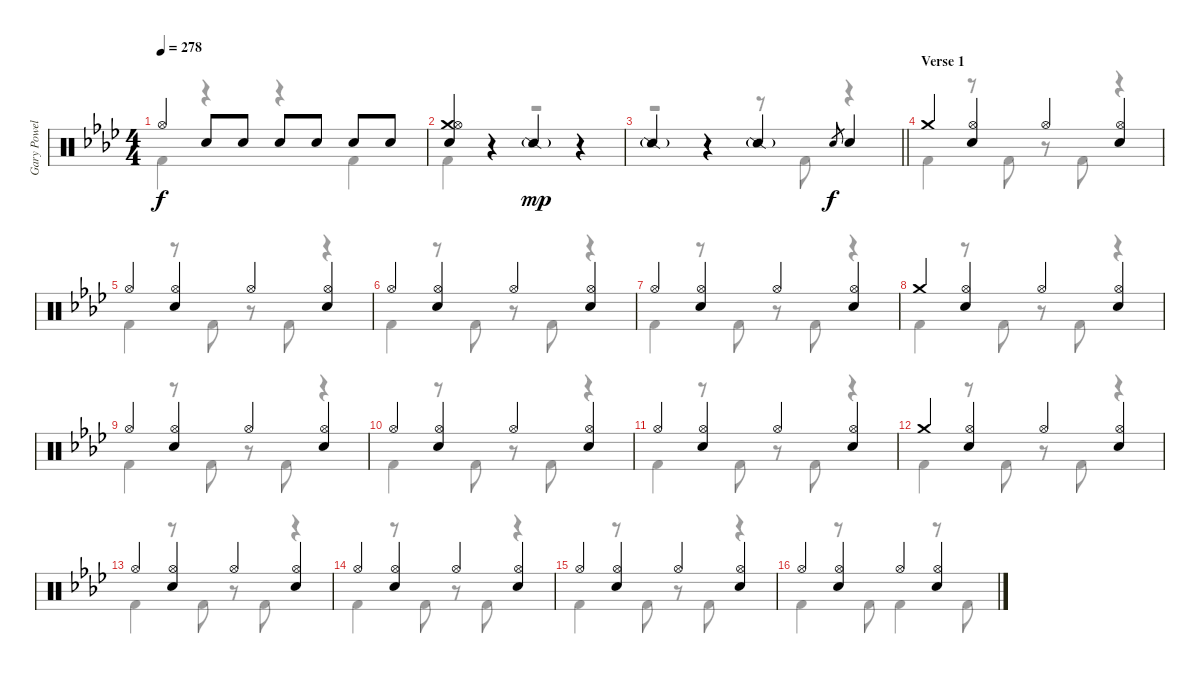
\track ("Gary Powell" "Gary Powel") {instrument percussion}
\staff {score}
\articulation defaults
\voice
\ts (4 4)
\tempo 278
\clef neutral
\ks ab "Hi-Hat (open)".4{dy f} "Electric Snare (hit)".8 "Electric Snare (hit)".8 "Electric Snare (hit)".8 "Electric Snare (hit)".8 "Electric Snare (hit)".8 "Electric Snare (hit)".8
|
("Crash medium (hit)" "Hi-Hat (open)" "Electric Snare (hit)").4 r.4 "Snare (side stick) 2"{g}.4{dy mp} r.4 |
\barLineRight lightlight "Snare (side stick) 2"{g}.4
r.4 "Snare (side stick) 2"{g}.4 "Electric Snare (hit)".8{gr dy f} "Electric Snare (hit)".4 |
\section ("" "Verse 1")
"Crash medium (hit)".4 ("Hi-Hat (open)" "Electric Snare (hit)").4 "Hi-Hat (open)".4 ("Hi-Hat (open)" "Electric Snare (hit)").4 |
"Hi-Hat (open)".4 ("Hi-Hat (open)" "Electric Snare (hit)").4 "Hi-Hat (open)".4 ("Hi-Hat (open)" "Electric Snare (hit)").4 |
"Hi-Hat (open)".4 ("Hi-Hat (open)" "Electric Snare (hit)").4 "Hi-Hat (open)".4 ("Hi-Hat (open)" "Electric Snare (hit)").4 |
"Hi-Hat (open)".4 ("Hi-Hat (open)" "Electric Snare (hit)").4 "Hi-Hat (open)".4 ("Hi-Hat (open)" "Electric Snare (hit)").4 |
"Crash medium (hit)".4 ("Hi-Hat (open)" "Electric Snare (hit)").4 "Hi-Hat (open)".4 ("Hi-Hat (open)" "Electric Snare (hit)").4 |
"Hi-Hat (open)".4 ("Hi-Hat (open)" "Electric Snare (hit)").4 "Hi-Hat (open)".4 ("Hi-Hat (open)" "Electric Snare (hit)").4 |
"Hi-Hat (open)".4 ("Hi-Hat (open)" "Electric Snare (hit)").4 "Hi-Hat (open)".4 ("Hi-Hat (open)" "Electric Snare (hit)").4 |
"Hi-Hat (open)".4 ("Hi-Hat (open)" "Electric Snare (hit)").4 "Hi-Hat (open)".4 ("Hi-Hat (open)" "Electric Snare (hit)").4 |
"Crash medium (hit)".4 ("Hi-Hat (open)" "Electric Snare (hit)").4 "Hi-Hat (open)".4 ("Hi-Hat (open)" "Electric Snare (hit)").4 |
"Hi-Hat (open)".4 ("Hi-Hat (open)" "Electric Snare (hit)").4 "Hi-Hat (open)".4 ("Hi-Hat (open)" "Electric Snare (hit)").4 |
"Hi-Hat (open)".4 ("Hi-Hat (open)" "Electric Snare (hit)").4 "Hi-Hat (open)".4 ("Hi-Hat (open)" "Electric Snare (hit)").4 |
"Hi-Hat (open)".4 ("Hi-Hat (open)" "Electric Snare (hit)").4 "Hi-Hat (open)".4 ("Hi-Hat (open)" "Electric Snare (hit)").4 |
"Hi-Hat (open)".4 ("Hi-Hat (open)" "Electric Snare (hit)").4 "Hi-Hat (open)".4 ("Hi-Hat (open)" "Electric Snare (hit)").4
\voice
\clef neutral
\ottava regular
\simile none
\ks ab "Kick (hit) 2".4{dy f}
r.4 r.4 "Kick (hit) 2".4 |
"Kick (hit) 2".4 r.4 r.2 |
\barLineRight lightlight
r.2 r.8 "Kick (hit) 2".8 r.4 |
"Kick (hit) 2".4 r.8 "Kick (hit) 2".8 r.8 "Kick (hit) 2".8 r.4 |
"Kick (hit) 2".4 r.8 "Kick (hit) 2".8 r.8 "Kick (hit) 2".8 r.4 |
"Kick (hit) 2".4 r.8 "Kick (hit) 2".8 r.8 "Kick (hit) 2".8 r.4 |
"Kick (hit) 2".4 r.8 "Kick (hit) 2".8 r.8 "Kick (hit) 2".8 r.4 |
"Kick (hit) 2".4 r.8 "Kick (hit) 2".8 r.8 "Kick (hit) 2".8 r.4 |
"Kick (hit) 2".4 r.8 "Kick (hit) 2".8 r.8 "Kick (hit) 2".8 r.4 |
"Kick (hit) 2".4 r.8 "Kick (hit) 2".8 r.8 "Kick (hit) 2".8 r.4 |
"Kick (hit) 2".4 r.8 "Kick (hit) 2".8 r.8 "Kick (hit) 2".8 r.4 |
"Kick (hit) 2".4 r.8 "Kick (hit) 2".8 r.8 "Kick (hit) 2".8 r.4 |
"Kick (hit) 2".4 r.8 "Kick (hit) 2".8 r.8 "Kick (hit) 2".8 r.4 |
"Kick (hit) 2".4 r.8 "Kick (hit) 2".8 r.8 "Kick (hit) 2".8 r.4 |
"Kick (hit) 2".4 r.8 "Kick (hit) 2".8 r.8 "Kick (hit) 2".8 r.4 |
"Kick (hit) 2".4 r.8 "Kick (hit) 2".8 "Kick (hit) 2".4 r.8 "Kick (hit) 2".8
